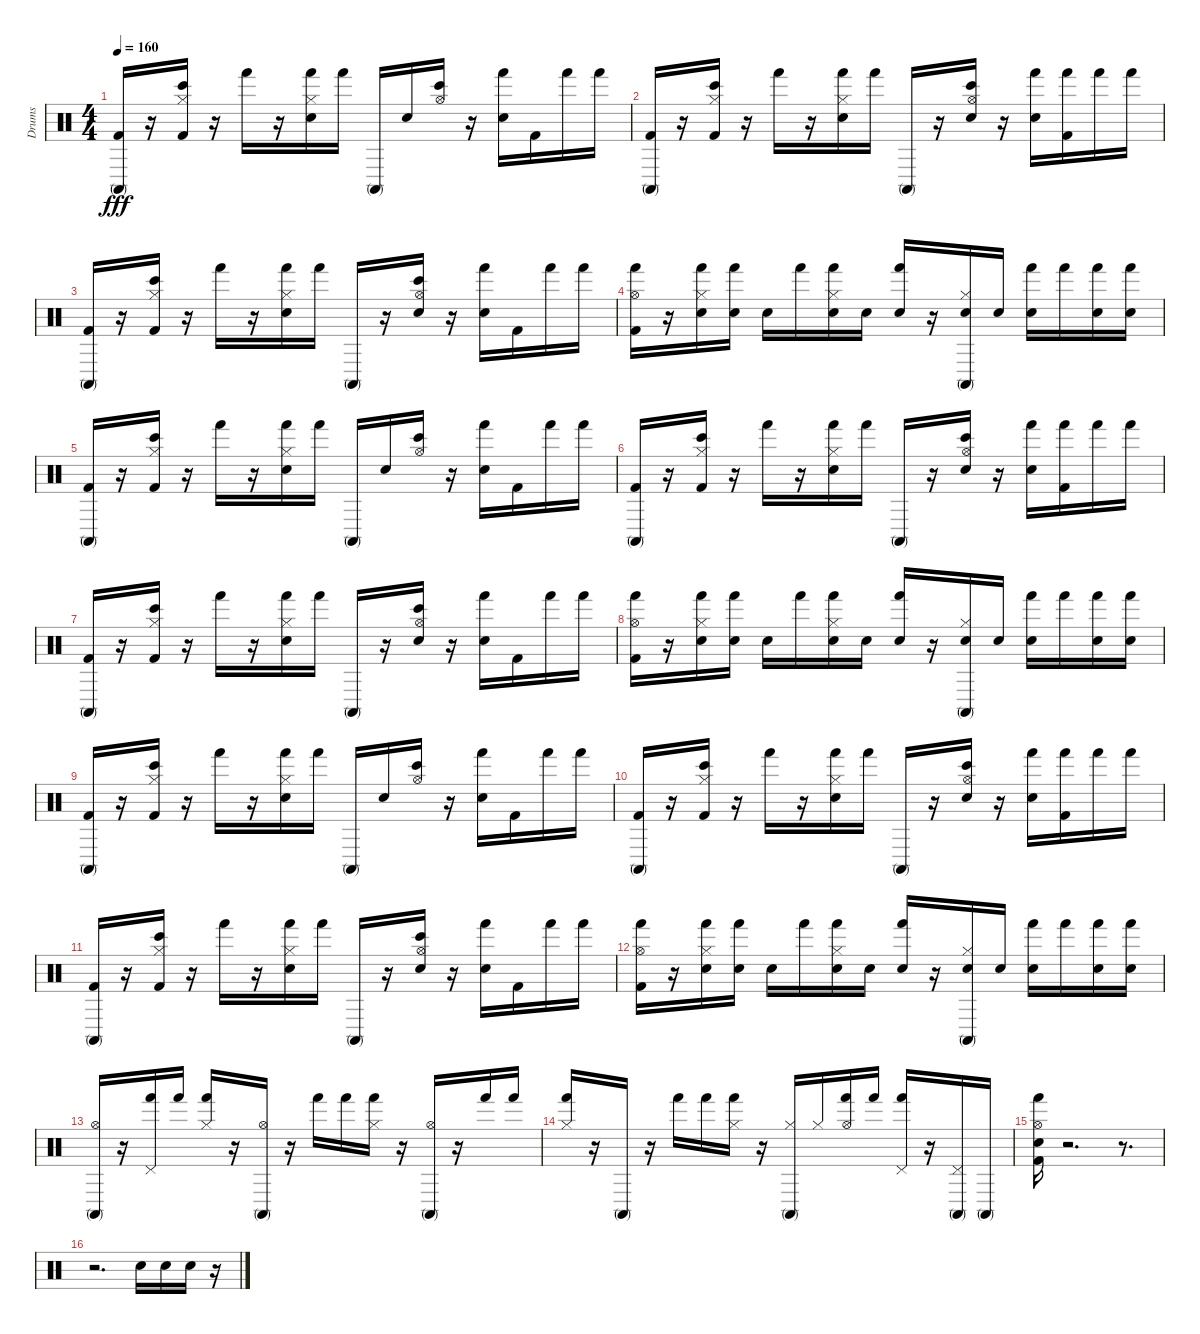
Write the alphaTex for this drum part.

\track ("Drums" "Drums") {instrument percussion}
\staff {score}
\articulation defaults
\ts (4 4)
\tempo 160
\clef neutral
\ks c
("Conga high (mute)" "Kick (hit) 2").16{dy fff} r.16 ("Hi-Hat (closed)" "Bongo High (hit)" "Kick (hit) 2").16 r.16 "Hand (hit)".16 r.16 ("Electric Snare (hit)" "Hand (hit)" "Hi-Hat (closed)").16 "Hand (hit)".16 "Conga high (mute)".16 "Electric Snare (hit)".16 ("Bongo High (hit)" "Hi-Hat (open)").16 r.16 ("Hand (hit)" "Electric Snare (hit)").16 "Kick (hit) 2".16 "Hand (hit)".16 "Hand (hit)".16 |
("Kick (hit) 2" "Conga high (mute)").16 r.16 ("Hi-Hat (closed)" "Bongo High (hit)" "Kick (hit) 2").16 r.16 "Hand (hit)".16 r.16 ("Electric Snare (hit)" "Hi-Hat (closed)" "Hand (hit)").16 "Hand (hit)".16 "Conga high (mute)".16 r.16 ("Electric Snare (hit)" "Hi-Hat (open)" "Bongo High (hit)").16 r.16 ("Hand (hit)" "Electric Snare (hit)").16 ("Hand (hit)" "Kick (hit) 2").16 "Hand (hit)".16 "Hand (hit)".16 |
("Kick (hit) 2" "Conga high (mute)").16 r.16 ("Kick (hit) 2" "Hi-Hat (closed)" "Bongo High (hit)").16 r.16 "Hand (hit)".16 r.16 ("Electric Snare (hit)" "Hi-Hat (closed)" "Hand (hit)").16 "Hand (hit)".16 "Conga high (mute)".16 r.16 ("Electric Snare (hit)" "Hi-Hat (open)" "Bongo High (hit)").16 r.16 ("Hand (hit)" "Electric Snare (hit)").16 "Kick (hit) 2".16 "Hand (hit)".16 "Hand (hit)".16 |
("Kick (hit) 2" "Hi-Hat (open)" "Hand (hit)").16 r.16 ("Hand (hit)" "Electric Snare (hit)" "Hi-Hat (closed)").16 ("Electric Snare (hit)" "Hand (hit)").16 "Electric Snare (hit)".16 "Hand (hit)".16 ("Hi-Hat (closed)" "Hand (hit)" "Electric Snare (hit)").16 "Electric Snare (hit)".16 ("Hand (hit)" "Electric Snare (hit)").16 r.16 ("Electric Snare (hit)" "Conga high (mute)" "Hi-Hat (closed)").16 "Electric Snare (hit)".16 ("Electric Snare (hit)" "Hand (hit)").16 "Hand (hit)".16 ("Hand (hit)" "Electric Snare (hit)").16 ("Hand (hit)" "Electric Snare (hit)").16 |
("Kick (hit) 2" "Conga high (mute)").16 r.16 ("Kick (hit) 2" "Bongo High (hit)" "Hi-Hat (closed)").16 r.16 "Hand (hit)".16 r.16 ("Hand (hit)" "Hi-Hat (closed)" "Electric Snare (hit)").16 "Hand (hit)".16 "Conga high (mute)".16 "Electric Snare (hit)".16 ("Hi-Hat (open)" "Bongo High (hit)").16 r.16 ("Hand (hit)" "Electric Snare (hit)").16 "Kick (hit) 2".16 "Hand (hit)".16 "Hand (hit)".16 |
("Kick (hit) 2" "Conga high (mute)").16 r.16 ("Kick (hit) 2" "Hi-Hat (closed)" "Bongo High (hit)").16 r.16 "Hand (hit)".16 r.16 ("Hi-Hat (closed)" "Electric Snare (hit)" "Hand (hit)").16 "Hand (hit)".16 "Conga high (mute)".16 r.16 ("Hi-Hat (open)" "Electric Snare (hit)" "Bongo High (hit)").16 r.16 ("Hand (hit)" "Electric Snare (hit)").16 ("Hand (hit)" "Kick (hit) 2").16 "Hand (hit)".16 "Hand (hit)".16 |
("Kick (hit) 2" "Conga high (mute)").16 r.16 ("Kick (hit) 2" "Hi-Hat (closed)" "Bongo High (hit)").16 r.16 "Hand (hit)".16 r.16 ("Hand (hit)" "Hi-Hat (closed)" "Electric Snare (hit)").16 "Hand (hit)".16 "Conga high (mute)".16 r.16 ("Electric Snare (hit)" "Bongo High (hit)" "Hi-Hat (open)").16 r.16 ("Hand (hit)" "Electric Snare (hit)").16 "Kick (hit) 2".16 "Hand (hit)".16 "Hand (hit)".16 |
("Hand (hit)" "Hi-Hat (open)" "Kick (hit) 2").16 r.16 ("Hi-Hat (closed)" "Hand (hit)" "Electric Snare (hit)").16 ("Electric Snare (hit)" "Hand (hit)").16 "Electric Snare (hit)".16 "Hand (hit)".16 ("Hi-Hat (closed)" "Electric Snare (hit)" "Hand (hit)").16 "Electric Snare (hit)".16 ("Hand (hit)" "Electric Snare (hit)").16 r.16 ("Electric Snare (hit)" "Conga high (mute)" "Hi-Hat (closed)").16 "Electric Snare (hit)".16 ("Electric Snare (hit)" "Hand (hit)").16 "Hand (hit)".16 ("Hand (hit)" "Electric Snare (hit)").16 ("Electric Snare (hit)" "Hand (hit)").16 |
("Kick (hit) 2" "Conga high (mute)").16 r.16 ("Kick (hit) 2" "Hi-Hat (closed)" "Bongo High (hit)").16 r.16 "Hand (hit)".16 r.16 ("Hand (hit)" "Electric Snare (hit)" "Hi-Hat (closed)").16 "Hand (hit)".16 "Conga high (mute)".16 "Electric Snare (hit)".16 ("Hi-Hat (open)" "Bongo High (hit)").16 r.16 ("Electric Snare (hit)" "Hand (hit)").16 "Kick (hit) 2".16 "Hand (hit)".16 "Hand (hit)".16 |
("Kick (hit) 2" "Conga high (mute)").16 r.16 ("Bongo High (hit)" "Hi-Hat (closed)" "Kick (hit) 2").16 r.16 "Hand (hit)".16 r.16 ("Hi-Hat (closed)" "Hand (hit)" "Electric Snare (hit)").16 "Hand (hit)".16 "Conga high (mute)".16 r.16 ("Hi-Hat (open)" "Electric Snare (hit)" "Bongo High (hit)").16 r.16 ("Hand (hit)" "Electric Snare (hit)").16 ("Kick (hit) 2" "Hand (hit)").16 "Hand (hit)".16 "Hand (hit)".16 |
("Conga high (mute)" "Kick (hit) 2").16 r.16 ("Bongo High (hit)" "Kick (hit) 2" "Hi-Hat (closed)").16 r.16 "Hand (hit)".16 r.16 ("Hand (hit)" "Electric Snare (hit)" "Hi-Hat (closed)").16 "Hand (hit)".16 "Conga high (mute)".16 r.16 ("Hi-Hat (open)" "Bongo High (hit)" "Electric Snare (hit)").16 r.16 ("Electric Snare (hit)" "Hand (hit)").16 "Kick (hit) 2".16 "Hand (hit)".16 "Hand (hit)".16 |
("Kick (hit) 2" "Hi-Hat (open)" "Hand (hit)").16 r.16 ("Hand (hit)" "Electric Snare (hit)" "Hi-Hat (closed)").16 ("Electric Snare (hit)" "Hand (hit)").16 "Electric Snare (hit)".16 "Hand (hit)".16 ("Hand (hit)" "Electric Snare (hit)" "Hi-Hat (closed)").16 "Electric Snare (hit)".16 ("Hand (hit)" "Electric Snare (hit)").16 r.16 ("Conga high (mute)" "Electric Snare (hit)" "Hi-Hat (closed)").16 "Electric Snare (hit)".16 ("Electric Snare (hit)" "Hand (hit)").16 "Hand (hit)".16 ("Hand (hit)" "Electric Snare (hit)").16 ("Hand (hit)" "Electric Snare (hit)").16 |
("Conga high (mute)" "Hi-Hat (open)").16 r.16 ("Hand (hit)" "Pedal Hi-Hat (hit)").16 "Hand (hit)".16 ("Hand (hit)" "Hi-Hat (closed)").16 r.16 ("Conga high (mute)" "Hi-Hat (open)").16 r.16 "Hand (hit)".16 "Hand (hit)".16 ("Hand (hit)" "Hi-Hat (closed)").16 r.16 ("Conga high (mute)" "Hi-Hat (open)").16 r.16 "Hand (hit)".16 "Hand (hit)".16 |
("Hi-Hat (closed)" "Hand (hit)").16 r.16 "Conga high (mute)".16 r.16 "Hand (hit)".16 "Hand (hit)".16 ("Hand (hit)" "Hi-Hat (closed)").16 r.16 ("Conga high (mute)" "Hi-Hat (closed)").16 "Hi-Hat (closed)".16 ("Hand (hit)" "Hi-Hat (open)").16 "Hand (hit)".16 ("Pedal Hi-Hat (hit)" "Hand (hit)").16 r.16 ("Conga high (mute)" "Pedal Hi-Hat (hit)").16 "Conga high (mute)".16 |
("Hi-Hat (open)" "Electric Snare (hit)" "Kick (hit) 2" "Hand (hit)").16 r.2{d} r.8{d} |
r.2{d} "Snare (hit) 2".16 "Snare (hit) 2".16 "Snare (hit) 2".16 r.16
